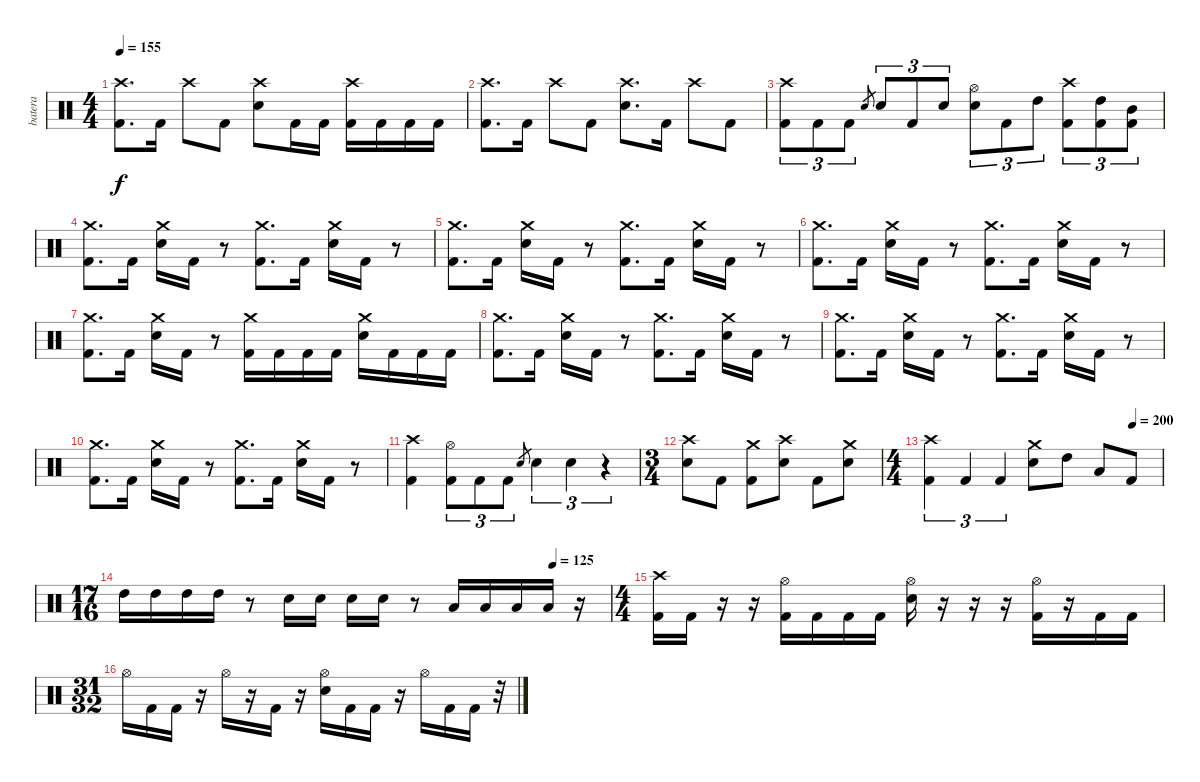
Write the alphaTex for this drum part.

\track ("batera" "batera") {instrument percussion}
\staff {score}
\articulation defaults
\ts (4 4)
\tempo 155
\clef neutral
\ks c
("Crash high (hit)" "Kick (hit) 2").8{d dy f} "Kick (hit) 2".16 "Crash high (hit)".8 "Kick (hit) 2".8 ("Crash high (hit)" "Electric Snare (hit)").8 "Kick (hit) 2".16 "Kick (hit) 2".16 ("Crash high (hit)" "Kick (hit) 2").16 "Kick (hit) 2".16 "Kick (hit) 2".16 "Kick (hit) 2".16 |
("Crash high (hit)" "Kick (hit) 2").8{d} "Kick (hit) 2".16 "Crash high (hit)".8 "Kick (hit) 2".8 ("Crash high (hit)" "Electric Snare (hit)").8{d} "Kick (hit) 2".16 "Crash high (hit)".8 "Kick (hit) 2".8 |
("Crash high (hit)" "Kick (hit) 2").8{tu (3 2)} "Kick (hit) 2".8{tu (3 2)} "Kick (hit) 2".8{tu (3 2)} "Electric Snare (hit)".8{gr} "Electric Snare (hit)".8{tu (3 2)} "Kick (hit) 2".8{tu (3 2)} "Electric Snare (hit)".8{tu (3 2)} ("Hi-Hat (open)" "Electric Snare (hit)").8{tu (3 2)} "Kick (hit) 2".8{tu (3 2)} "High Tom (hit)".8{tu (3 2)} ("Crash high (hit)" "Kick (hit) 2").8{tu (3 2)} ("High Tom (hit)" "Kick (hit) 2").8{tu (3 2)} ("Mid Tom (hit)" "Kick (hit) 2").8{tu (3 2)} |
("Crash medium (hit)" "Kick (hit) 2").8{d} "Kick (hit) 2".16 ("Crash medium (hit)" "Electric Snare (hit)").16 "Kick (hit) 2".16 r.8 ("Crash medium (hit)" "Kick (hit) 2").8{d} "Kick (hit) 2".16 ("Crash medium (hit)" "Electric Snare (hit)").16 "Kick (hit) 2".16 r.8 |
("Crash medium (hit)" "Kick (hit) 2").8{d} "Kick (hit) 2".16 ("Crash medium (hit)" "Electric Snare (hit)").16 "Kick (hit) 2".16 r.8 ("Crash medium (hit)" "Kick (hit) 2").8{d} "Kick (hit) 2".16 ("Crash medium (hit)" "Electric Snare (hit)").16 "Kick (hit) 2".16 r.8 |
("Crash medium (hit)" "Kick (hit) 2").8{d} "Kick (hit) 2".16 ("Crash medium (hit)" "Electric Snare (hit)").16 "Kick (hit) 2".16 r.8 ("Crash medium (hit)" "Kick (hit) 2").8{d} "Kick (hit) 2".16 ("Crash medium (hit)" "Electric Snare (hit)").16 "Kick (hit) 2".16 r.8 |
("Crash medium (hit)" "Kick (hit) 2").8{d} "Kick (hit) 2".16 ("Crash medium (hit)" "Electric Snare (hit)").16 "Kick (hit) 2".16 r.8 ("Crash medium (hit)" "Kick (hit) 2").16 "Kick (hit) 2".16 "Kick (hit) 2".16 "Kick (hit) 2".16 ("Crash medium (hit)" "Electric Snare (hit)").16 "Kick (hit) 2".16 "Kick (hit) 2".16 "Kick (hit) 2".16 |
("Crash medium (hit)" "Kick (hit) 2").8{d} "Kick (hit) 2".16 ("Crash medium (hit)" "Electric Snare (hit)").16 "Kick (hit) 2".16 r.8 ("Crash medium (hit)" "Kick (hit) 2").8{d} "Kick (hit) 2".16 ("Crash medium (hit)" "Electric Snare (hit)").16 "Kick (hit) 2".16 r.8 |
("Crash medium (hit)" "Kick (hit) 2").8{d} "Kick (hit) 2".16 ("Crash medium (hit)" "Electric Snare (hit)").16 "Kick (hit) 2".16 r.8 ("Crash medium (hit)" "Kick (hit) 2").8{d} "Kick (hit) 2".16 ("Crash medium (hit)" "Electric Snare (hit)").16 "Kick (hit) 2".16 r.8 |
("Crash medium (hit)" "Kick (hit) 2").8{d} "Kick (hit) 2".16 ("Crash medium (hit)" "Electric Snare (hit)").16 "Kick (hit) 2".16 r.8 ("Crash medium (hit)" "Kick (hit) 2").8{d} "Kick (hit) 2".16 ("Crash medium (hit)" "Electric Snare (hit)").16 "Kick (hit) 2".16 r.8 |
("Crash high (hit)" "Kick (hit) 2").4 ("Hi-Hat (open)" "Kick (hit) 2").8{tu (3 2)} "Kick (hit) 2".8{tu (3 2)} "Kick (hit) 2".8{tu (3 2)} "Electric Snare (hit)".8{gr} "Electric Snare (hit)".4{tu (3 2)} "Electric Snare (hit)".4{tu (3 2)} r.4{tu (3 2)} |
\ts (3 4)
("Crash high (hit)" "Electric Snare (hit)").8 "Kick (hit) 2".8 ("Crash medium (hit)" "Kick (hit) 2").8 ("Crash high (hit)" "Electric Snare (hit)").8 "Kick (hit) 2".8 ("Crash medium (hit)" "Electric Snare (hit)").8 |
\ts (4 4)
\tempo (200 0.875)
("Crash high (hit)" "Kick (hit) 2").4{tu (3 2)} "Kick (hit) 2".4{tu (3 2)} "Kick (hit) 2".4{tu (3 2)} ("Crash medium (hit)" "Electric Snare (hit)").8 "High Tom (hit)".8 "Low Tom (hit)".8 "Kick (hit) 2".8 |
\ts (17 16)
\tempo (125 0.8823529411764706)
"High Tom (hit)".16 "High Tom (hit)".16 "High Tom (hit)".16 "High Tom (hit)".16 r.8 "Electric Snare (hit)".16 "Electric Snare (hit)".16 "Electric Snare (hit)".16 "Electric Snare (hit)".16 r.8 "Low Tom (hit)".16 "Low Tom (hit)".16 "Low Tom (hit)".16 "Low Tom (hit)".16 r.16 |
\ts (4 4)
("Crash high (hit)" "Kick (hit) 2").16 "Kick (hit) 2".16 r.16 r.16 ("Hi-Hat (open)" "Kick (hit) 2").16 "Kick (hit) 2".16 "Kick (hit) 2".16 "Kick (hit) 2".16 ("Hi-Hat (open)" "Electric Snare (hit)").16 r.16 r.16 r.16 ("Hi-Hat (open)" "Kick (hit) 2").16 r.16 "Kick (hit) 2".16 "Kick (hit) 2".16 |
\ts (31 32)
"Hi-Hat (open)".16 "Kick (hit) 2".16 "Kick (hit) 2".16 r.16 "Hi-Hat (open)".16 r.16 "Kick (hit) 2".16 r.16 ("Hi-Hat (open)" "Electric Snare (hit)").16 "Kick (hit) 2".16 "Kick (hit) 2".16 r.16 "Hi-Hat (open)".16 "Kick (hit) 2".16 "Kick (hit) 2".16 r.32
